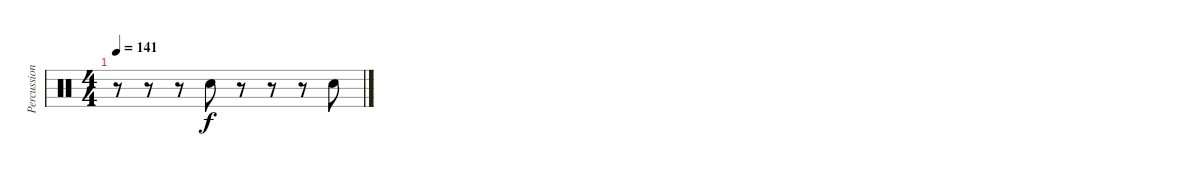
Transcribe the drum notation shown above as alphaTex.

\track ("Percussion" "Percussion") {instrument percussion}
\staff {score}
\articulation defaults
\ts (4 4)
\tempo 141
\clef neutral
\ks c
r.8{dy f} r.8 r.8 "Electric Snare (hit)".8 r.8 r.8 r.8 "Electric Snare (hit)".8
